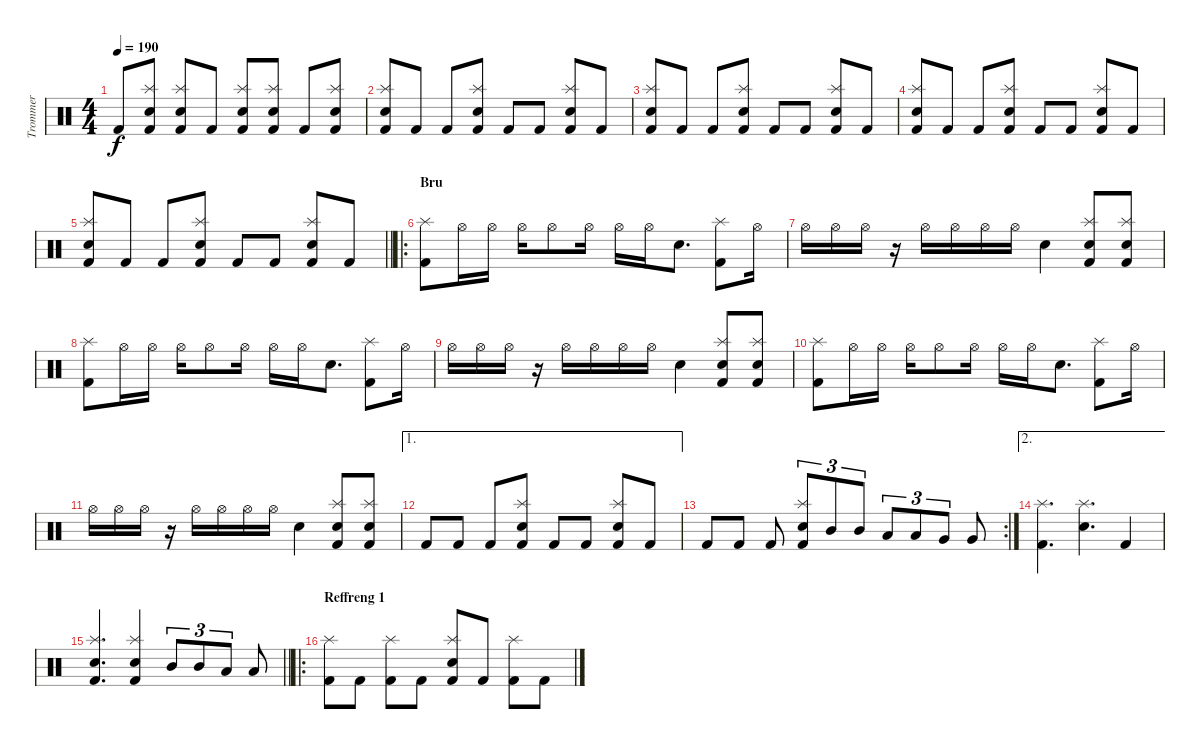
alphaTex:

\track ("Trommer" "Trommer") {instrument percussion}
\staff {score}
\articulation defaults
\ts (4 4)
\tempo 190
\clef neutral
\ks c "Kick (hit) 2".8{dy f}
("Splash (hit)" "Snare (hit) 2" "Kick (hit) 2").8 ("Splash (hit)" "Snare (hit) 2" "Kick (hit) 2").8 "Kick (hit) 2".8 ("Splash (hit)" "Snare (hit) 2" "Kick (hit) 2").8 ("Splash (hit)" "Snare (hit) 2" "Kick (hit) 2").8 "Kick (hit) 2".8 ("Splash (hit)" "Snare (hit) 2" "Kick (hit) 2").8 |
("Splash (hit)" "Snare (hit) 2" "Kick (hit) 2").8 "Kick (hit) 2".8 "Kick (hit) 2".8 ("Splash (hit)" "Snare (hit) 2" "Kick (hit) 2").8 "Kick (hit) 2".8 "Kick (hit) 2".8 ("Splash (hit)" "Snare (hit) 2" "Kick (hit) 2").8 "Kick (hit) 2".8 |
("Splash (hit)" "Snare (hit) 2" "Kick (hit) 2").8 "Kick (hit) 2".8 "Kick (hit) 2".8 ("Splash (hit)" "Snare (hit) 2" "Kick (hit) 2").8 "Kick (hit) 2".8 "Kick (hit) 2".8 ("Splash (hit)" "Snare (hit) 2" "Kick (hit) 2").8 "Kick (hit) 2".8 |
("Splash (hit)" "Snare (hit) 2" "Kick (hit) 2").8 "Kick (hit) 2".8 "Kick (hit) 2".8 ("Splash (hit)" "Snare (hit) 2" "Kick (hit) 2").8 "Kick (hit) 2".8 "Kick (hit) 2".8 ("Splash (hit)" "Snare (hit) 2" "Kick (hit) 2").8 "Kick (hit) 2".8 |
\barLineRight lightlight
("Splash (hit)" "Snare (hit) 2" "Kick (hit) 2").8 "Kick (hit) 2".8 "Kick (hit) 2".8 ("Splash (hit)" "Snare (hit) 2" "Kick (hit) 2").8 "Kick (hit) 2".8 "Kick (hit) 2".8 ("Splash (hit)" "Snare (hit) 2" "Kick (hit) 2").8 "Kick (hit) 2".8 |
\ro
\section ("" "Bru")
("Splash (hit)" "Kick (hit) 2").8 "Hi-Hat (open)".16 "Hi-Hat (open)".16 "Hi-Hat (open)".16 "Hi-Hat (open)".8 "Hi-Hat (open)".16 "Hi-Hat (open)".16 "Hi-Hat (open)".16 "Snare (hit) 2".8{d} ("Splash (hit)" "Kick (hit) 2").8 "Hi-Hat (open)".16 |
"Hi-Hat (open)".16 "Hi-Hat (open)".16 "Hi-Hat (open)".16 r.16 "Hi-Hat (open)".16 "Hi-Hat (open)".16 "Hi-Hat (open)".16 "Hi-Hat (open)".16 "Snare (hit) 2".4 ("Splash (hit)" "Snare (hit) 2" "Kick (hit) 2").8 ("Splash (hit)" "Snare (hit) 2" "Kick (hit) 2").8 |
("Splash (hit)" "Kick (hit) 2").8 "Hi-Hat (open)".16 "Hi-Hat (open)".16 "Hi-Hat (open)".16 "Hi-Hat (open)".8 "Hi-Hat (open)".16 "Hi-Hat (open)".16 "Hi-Hat (open)".16 "Snare (hit) 2".8{d} ("Splash (hit)" "Kick (hit) 2").8 "Hi-Hat (open)".16 |
"Hi-Hat (open)".16 "Hi-Hat (open)".16 "Hi-Hat (open)".16 r.16 "Hi-Hat (open)".16 "Hi-Hat (open)".16 "Hi-Hat (open)".16 "Hi-Hat (open)".16 "Snare (hit) 2".4 ("Splash (hit)" "Snare (hit) 2" "Kick (hit) 2").8 ("Splash (hit)" "Snare (hit) 2" "Kick (hit) 2").8 |
("Splash (hit)" "Kick (hit) 2").8 "Hi-Hat (open)".16 "Hi-Hat (open)".16 "Hi-Hat (open)".16 "Hi-Hat (open)".8 "Hi-Hat (open)".16 "Hi-Hat (open)".16 "Hi-Hat (open)".16 "Snare (hit) 2".8{d} ("Splash (hit)" "Kick (hit) 2").8 "Hi-Hat (open)".16 |
"Hi-Hat (open)".16 "Hi-Hat (open)".16 "Hi-Hat (open)".16 r.16 "Hi-Hat (open)".16 "Hi-Hat (open)".16 "Hi-Hat (open)".16 "Hi-Hat (open)".16 "Snare (hit) 2".4 ("Splash (hit)" "Snare (hit) 2" "Kick (hit) 2").8 ("Splash (hit)" "Snare (hit) 2" "Kick (hit) 2").8 |
\ae 1 "Kick (hit) 2".8 "Kick (hit) 2".8 "Kick (hit) 2".8
("Splash (hit)" "Snare (hit) 2" "Kick (hit) 2").8 "Kick (hit) 2".8 "Kick (hit) 2".8 ("Splash (hit)" "Snare (hit) 2" "Kick (hit) 2").8 "Kick (hit) 2".8 |
\rc 2 "Kick (hit) 2".8 "Kick (hit) 2".8 "Kick (hit) 2".8
("Splash (hit)" "Snare (hit) 2" "Kick (hit) 2").8{tu (3 2)} "Mid Tom (hit)".8{tu (3 2)} "Mid Tom (hit)".8{tu (3 2)} "Low Tom (hit)".8{tu (3 2)} "Low Tom (hit)".8{tu (3 2)} "Very Low Tom (hit)".8{tu (3 2)} "Very Low Tom (hit)".8 |
\ae 2
("Splash (hit)" "Kick (hit) 2").4{d} ("Splash (hit)" "Snare (hit) 2").4{d} "Kick (hit) 2".4 |
\barLineRight lightlight
("Splash (hit)" "Snare (hit) 2" "Kick (hit) 2").4{d} ("Splash (hit)" "Snare (hit) 2" "Kick (hit) 2").4 "Mid Tom (hit)".8{tu (3 2)} "Mid Tom (hit)".8{tu (3 2)} "Low Tom (hit)".8{tu (3 2)} "Low Tom (hit)".8 |
\ro
\section ("" "Reffreng 1")
("Splash (hit)" "Kick (hit) 2").8 "Kick (hit) 2".8 ("Splash (hit)" "Kick (hit) 2").8 "Kick (hit) 2".8 ("Splash (hit)" "Snare (hit) 2" "Kick (hit) 2").8 "Kick (hit) 2".8 ("Splash (hit)" "Kick (hit) 2").8 "Kick (hit) 2".8
